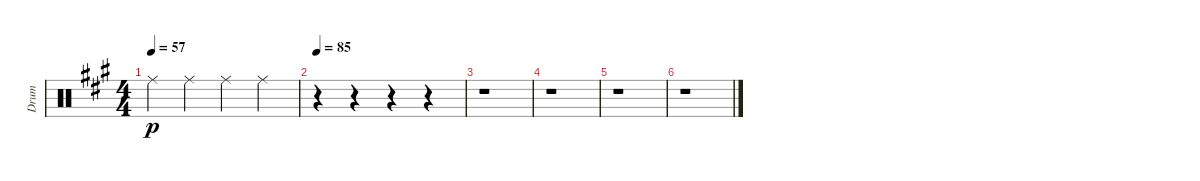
\track ("Drum" "Drum") {instrument percussion}
\staff {score}
\articulation defaults
\ts (4 4)
\tempo 57
\clef neutral
\ks a "Ride (middle)".4{dy p} "Ride (middle)".4 "Ride (middle)".4 "Ride (middle)".4
|
\tempo 82
\tempo 85
r.4 r.4 r.4 r.4 |
r.1 |
r.1 |
r.1 |
r.1
